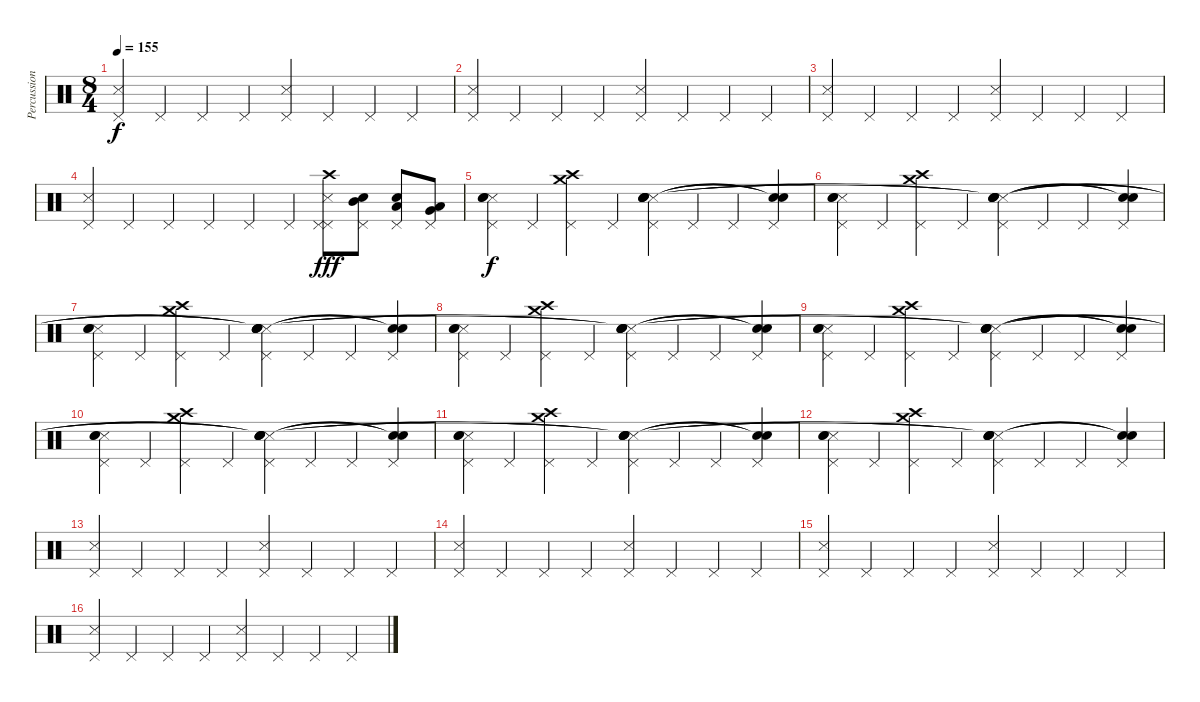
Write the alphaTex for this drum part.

\track ("Percussion" "Percussion") {instrument percussion}
\staff {score}
\articulation defaults
\ts (8 4)
\tempo 155
\clef neutral
\ks c
("Snare (side stick) 3" "Pedal Hi-Hat (hit)").4{dy f} "Pedal Hi-Hat (hit)".4 "Pedal Hi-Hat (hit)".4 "Pedal Hi-Hat (hit)".4 ("Pedal Hi-Hat (hit)" "Snare (side stick) 3").4 "Pedal Hi-Hat (hit)".4 "Pedal Hi-Hat (hit)".4 "Pedal Hi-Hat (hit)".4 |
("Snare (side stick) 3" "Pedal Hi-Hat (hit)").4 "Pedal Hi-Hat (hit)".4 "Pedal Hi-Hat (hit)".4 "Pedal Hi-Hat (hit)".4 ("Pedal Hi-Hat (hit)" "Snare (side stick) 3").4 "Pedal Hi-Hat (hit)".4 "Pedal Hi-Hat (hit)".4 "Pedal Hi-Hat (hit)".4 |
("Snare (side stick) 3" "Pedal Hi-Hat (hit)").4 "Pedal Hi-Hat (hit)".4 "Pedal Hi-Hat (hit)".4 "Pedal Hi-Hat (hit)".4 ("Pedal Hi-Hat (hit)" "Snare (side stick) 3").4 "Pedal Hi-Hat (hit)".4 "Pedal Hi-Hat (hit)".4 "Pedal Hi-Hat (hit)".4 |
("Snare (side stick) 3" "Pedal Hi-Hat (hit)").4 "Pedal Hi-Hat (hit)".4 "Pedal Hi-Hat (hit)".4 "Pedal Hi-Hat (hit)".4 "Pedal Hi-Hat (hit)".4 "Pedal Hi-Hat (hit)".4 ("Pedal Hi-Hat (hit)" "Snare (side stick) 3" "Pedal Hi-Hat (hit)" "Crash high (hit)").8{dy fff} ("Pedal Hi-Hat (hit)" "Snare (hit) 2" "Mid Tom (hit)").8 ("Pedal Hi-Hat (hit)" "Electric Snare (hit)" "Low Tom (hit)").8 ("Pedal Hi-Hat (hit)" "Low Floor Tom (hit)" "Very Low Tom (hit)").8 |
("Snare (side stick) 3" "Pedal Hi-Hat (hit)" "Electric Snare (hit)" "Snare (hit) 2").4{dy f} "Pedal Hi-Hat (hit)".4 ("Pedal Hi-Hat (hit)" "Crash medium (hit)" "Crash high (hit)").4 "Pedal Hi-Hat (hit)".4 ("Pedal Hi-Hat (hit)" "Snare (side stick) 3" "Electric Snare (hit)" "Snare (hit) 2" "Snare (hit)" "Snare (hit)").4 "Pedal Hi-Hat (hit)".4 "Pedal Hi-Hat (hit)".4 ("Pedal Hi-Hat (hit)" "Snare (hit)"{t} "Snare (hit)"{t}).4 |
("Snare (side stick) 3" "Pedal Hi-Hat (hit)" "Electric Snare (hit)" "Snare (hit) 2").4 "Pedal Hi-Hat (hit)".4 ("Pedal Hi-Hat (hit)" "Crash medium (hit)" "Crash high (hit)").4 "Pedal Hi-Hat (hit)".4 ("Pedal Hi-Hat (hit)" "Snare (side stick) 3" "Electric Snare (hit)" "Snare (hit) 2" "Snare (hit)"{t} "Snare (hit)"{t}).4 "Pedal Hi-Hat (hit)".4 "Pedal Hi-Hat (hit)".4 ("Pedal Hi-Hat (hit)" "Snare (hit)"{t} "Snare (hit)"{t}).4 |
("Snare (side stick) 3" "Pedal Hi-Hat (hit)" "Electric Snare (hit)" "Snare (hit) 2").4 "Pedal Hi-Hat (hit)".4 ("Pedal Hi-Hat (hit)" "Crash medium (hit)" "Crash high (hit)").4 "Pedal Hi-Hat (hit)".4 ("Pedal Hi-Hat (hit)" "Snare (side stick) 3" "Electric Snare (hit)" "Snare (hit) 2" "Snare (hit)"{t} "Snare (hit)"{t}).4 "Pedal Hi-Hat (hit)".4 "Pedal Hi-Hat (hit)".4 ("Pedal Hi-Hat (hit)" "Snare (hit)"{t} "Snare (hit)"{t}).4 |
("Snare (side stick) 3" "Pedal Hi-Hat (hit)" "Electric Snare (hit)" "Snare (hit) 2").4 "Pedal Hi-Hat (hit)".4 ("Pedal Hi-Hat (hit)" "Crash medium (hit)" "Crash high (hit)").4 "Pedal Hi-Hat (hit)".4 ("Pedal Hi-Hat (hit)" "Snare (side stick) 3" "Electric Snare (hit)" "Snare (hit) 2" "Snare (hit)"{t} "Snare (hit)"{t}).4 "Pedal Hi-Hat (hit)".4 "Pedal Hi-Hat (hit)".4 ("Pedal Hi-Hat (hit)" "Snare (hit)"{t} "Snare (hit)"{t}).4 |
("Snare (side stick) 3" "Pedal Hi-Hat (hit)" "Electric Snare (hit)" "Snare (hit) 2").4 "Pedal Hi-Hat (hit)".4 ("Pedal Hi-Hat (hit)" "Crash medium (hit)" "Crash high (hit)").4 "Pedal Hi-Hat (hit)".4 ("Pedal Hi-Hat (hit)" "Snare (side stick) 3" "Electric Snare (hit)" "Snare (hit) 2" "Snare (hit)"{t} "Snare (hit)"{t}).4 "Pedal Hi-Hat (hit)".4 "Pedal Hi-Hat (hit)".4 ("Pedal Hi-Hat (hit)" "Snare (hit)"{t} "Snare (hit)"{t}).4 |
("Snare (side stick) 3" "Pedal Hi-Hat (hit)" "Electric Snare (hit)" "Snare (hit) 2").4 "Pedal Hi-Hat (hit)".4 ("Pedal Hi-Hat (hit)" "Crash medium (hit)" "Crash high (hit)").4 "Pedal Hi-Hat (hit)".4 ("Pedal Hi-Hat (hit)" "Snare (side stick) 3" "Electric Snare (hit)" "Snare (hit) 2" "Snare (hit)"{t} "Snare (hit)"{t}).4 "Pedal Hi-Hat (hit)".4 "Pedal Hi-Hat (hit)".4 ("Pedal Hi-Hat (hit)" "Snare (hit)"{t} "Snare (hit)"{t}).4 |
("Snare (side stick) 3" "Pedal Hi-Hat (hit)" "Electric Snare (hit)" "Snare (hit) 2").4 "Pedal Hi-Hat (hit)".4 ("Pedal Hi-Hat (hit)" "Crash medium (hit)" "Crash high (hit)").4 "Pedal Hi-Hat (hit)".4 ("Pedal Hi-Hat (hit)" "Snare (side stick) 3" "Electric Snare (hit)" "Snare (hit) 2" "Snare (hit)"{t} "Snare (hit)"{t}).4 "Pedal Hi-Hat (hit)".4 "Pedal Hi-Hat (hit)".4 ("Pedal Hi-Hat (hit)" "Snare (hit)"{t} "Snare (hit)"{t}).4 |
("Snare (side stick) 3" "Pedal Hi-Hat (hit)" "Electric Snare (hit)" "Snare (hit) 2").4 "Pedal Hi-Hat (hit)".4 ("Pedal Hi-Hat (hit)" "Crash medium (hit)" "Crash high (hit)").4 "Pedal Hi-Hat (hit)".4 ("Pedal Hi-Hat (hit)" "Snare (side stick) 3" "Electric Snare (hit)" "Snare (hit) 2" "Snare (hit)"{t} "Snare (hit)"{t}).4 "Pedal Hi-Hat (hit)".4 "Pedal Hi-Hat (hit)".4 ("Pedal Hi-Hat (hit)" "Snare (hit)"{t} "Snare (hit)"{t}).4 |
("Snare (side stick) 3" "Pedal Hi-Hat (hit)").4 "Pedal Hi-Hat (hit)".4 "Pedal Hi-Hat (hit)".4 "Pedal Hi-Hat (hit)".4 ("Pedal Hi-Hat (hit)" "Snare (side stick) 3").4 "Pedal Hi-Hat (hit)".4 "Pedal Hi-Hat (hit)".4 "Pedal Hi-Hat (hit)".4 |
("Snare (side stick) 3" "Pedal Hi-Hat (hit)").4 "Pedal Hi-Hat (hit)".4 "Pedal Hi-Hat (hit)".4 "Pedal Hi-Hat (hit)".4 ("Pedal Hi-Hat (hit)" "Snare (side stick) 3").4 "Pedal Hi-Hat (hit)".4 "Pedal Hi-Hat (hit)".4 "Pedal Hi-Hat (hit)".4 |
("Snare (side stick) 3" "Pedal Hi-Hat (hit)").4 "Pedal Hi-Hat (hit)".4 "Pedal Hi-Hat (hit)".4 "Pedal Hi-Hat (hit)".4 ("Pedal Hi-Hat (hit)" "Snare (side stick) 3").4 "Pedal Hi-Hat (hit)".4 "Pedal Hi-Hat (hit)".4 "Pedal Hi-Hat (hit)".4 |
("Snare (side stick) 3" "Pedal Hi-Hat (hit)").4 "Pedal Hi-Hat (hit)".4 "Pedal Hi-Hat (hit)".4 "Pedal Hi-Hat (hit)".4 ("Pedal Hi-Hat (hit)" "Snare (side stick) 3").4 "Pedal Hi-Hat (hit)".4 "Pedal Hi-Hat (hit)".4 "Pedal Hi-Hat (hit)".4
